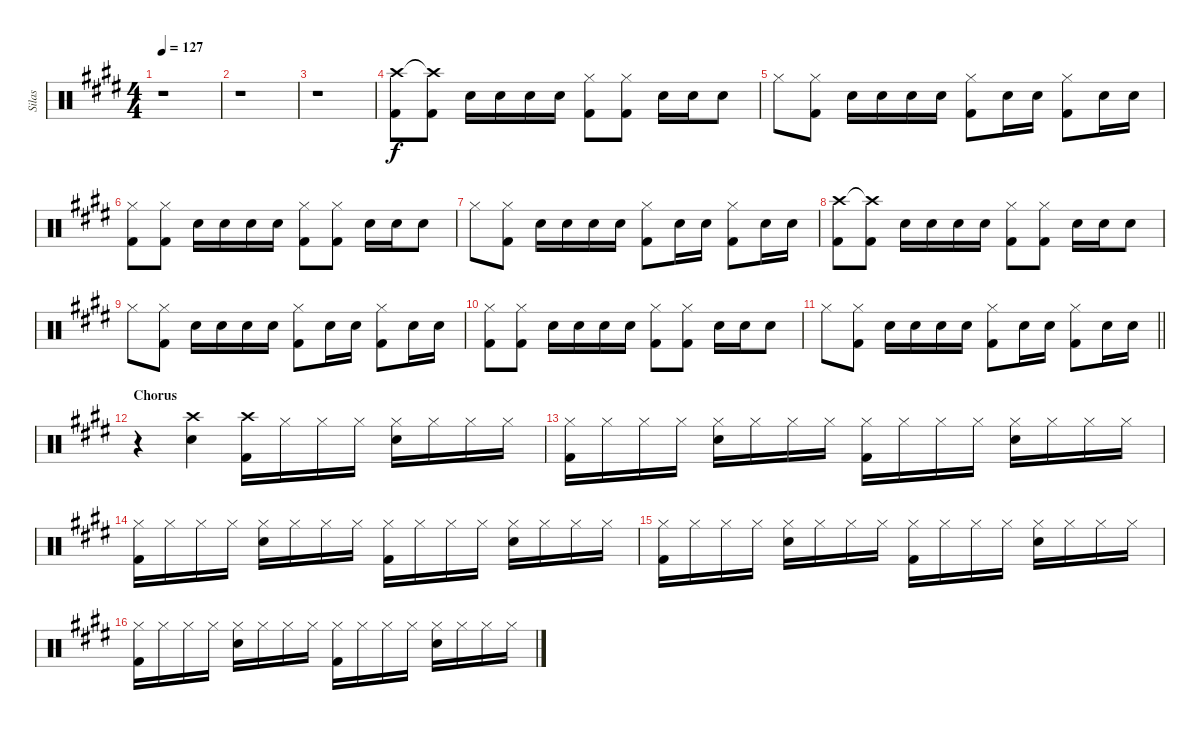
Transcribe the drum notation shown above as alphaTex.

\track ("Silas" "Silas") {instrument percussion}
\staff {score}
\articulation defaults
\ts (4 4)
\tempo 127
\clef neutral
\ks e
r.1{dy f} |
r.1 |
r.1 |
("Crash high (hit)" "Kick (hit) 2").8 ("Crash high (hit)"{t} "Kick (hit) 2").8 "Snare (hit) 2".16 "Snare (hit) 2".16 "Snare (hit) 2".16 "Snare (hit) 2".16 ("Hi-Hat (closed)" "Kick (hit) 2").8 ("Hi-Hat (closed)" "Kick (hit) 2").8 "Snare (hit) 2".16 "Snare (hit) 2".16 "Snare (hit) 2".8 |
"Hi-Hat (closed)".8 ("Hi-Hat (closed)" "Kick (hit) 2").8 "Snare (hit) 2".16 "Snare (hit) 2".16 "Snare (hit) 2".16 "Snare (hit) 2".16 ("Hi-Hat (closed)" "Kick (hit) 2").8 "Snare (hit) 2".16 "Snare (hit) 2".16 ("Hi-Hat (closed)" "Kick (hit) 2").8 "Snare (hit) 2".16 "Snare (hit) 2".16 |
("Hi-Hat (closed)" "Kick (hit) 2").8 ("Hi-Hat (closed)" "Kick (hit) 2").8 "Snare (hit) 2".16 "Snare (hit) 2".16 "Snare (hit) 2".16 "Snare (hit) 2".16 ("Hi-Hat (closed)" "Kick (hit) 2").8 ("Hi-Hat (closed)" "Kick (hit) 2").8 "Snare (hit) 2".16 "Snare (hit) 2".16 "Snare (hit) 2".8 |
"Hi-Hat (closed)".8 ("Hi-Hat (closed)" "Kick (hit) 2").8 "Snare (hit) 2".16 "Snare (hit) 2".16 "Snare (hit) 2".16 "Snare (hit) 2".16 ("Hi-Hat (closed)" "Kick (hit) 2").8 "Snare (hit) 2".16 "Snare (hit) 2".16 ("Hi-Hat (closed)" "Kick (hit) 2").8 "Snare (hit) 2".16 "Snare (hit) 2".16 |
("Crash high (hit)" "Kick (hit) 2").8 ("Crash high (hit)"{t} "Kick (hit) 2").8 "Snare (hit) 2".16 "Snare (hit) 2".16 "Snare (hit) 2".16 "Snare (hit) 2".16 ("Hi-Hat (closed)" "Kick (hit) 2").8 ("Hi-Hat (closed)" "Kick (hit) 2").8 "Snare (hit) 2".16 "Snare (hit) 2".16 "Snare (hit) 2".8 |
"Hi-Hat (closed)".8 ("Hi-Hat (closed)" "Kick (hit) 2").8 "Snare (hit) 2".16 "Snare (hit) 2".16 "Snare (hit) 2".16 "Snare (hit) 2".16 ("Hi-Hat (closed)" "Kick (hit) 2").8 "Snare (hit) 2".16 "Snare (hit) 2".16 ("Hi-Hat (closed)" "Kick (hit) 2").8 "Snare (hit) 2".16 "Snare (hit) 2".16 |
("Hi-Hat (closed)" "Kick (hit) 2").8 ("Hi-Hat (closed)" "Kick (hit) 2").8 "Snare (hit) 2".16 "Snare (hit) 2".16 "Snare (hit) 2".16 "Snare (hit) 2".16 ("Hi-Hat (closed)" "Kick (hit) 2").8 ("Hi-Hat (closed)" "Kick (hit) 2").8 "Snare (hit) 2".16 "Snare (hit) 2".16 "Snare (hit) 2".8 |
\barLineRight lightlight "Hi-Hat (closed)".8
("Hi-Hat (closed)" "Kick (hit) 2").8 "Snare (hit) 2".16 "Snare (hit) 2".16 "Snare (hit) 2".16 "Snare (hit) 2".16 ("Hi-Hat (closed)" "Kick (hit) 2").8 "Snare (hit) 2".16 "Snare (hit) 2".16 ("Hi-Hat (closed)" "Kick (hit) 2").8 "Snare (hit) 2".16 "Snare (hit) 2".16 |
\section ("" "Chorus")
r.4 ("Crash high (hit)" "Snare (hit) 2").4 ("Crash high (hit)" "Kick (hit) 2").16 "Hi-Hat (closed)".16 "Hi-Hat (closed)".16 "Hi-Hat (closed)".16 ("Hi-Hat (closed)" "Snare (hit) 2").16 "Hi-Hat (closed)".16 "Hi-Hat (closed)".16 "Hi-Hat (closed)".16 |
("Hi-Hat (closed)" "Kick (hit) 2").16 "Hi-Hat (closed)".16 "Hi-Hat (closed)".16 "Hi-Hat (closed)".16 ("Hi-Hat (closed)" "Snare (hit) 2").16 "Hi-Hat (closed)".16 "Hi-Hat (closed)".16 "Hi-Hat (closed)".16 ("Hi-Hat (closed)" "Kick (hit) 2").16 "Hi-Hat (closed)".16 "Hi-Hat (closed)".16 "Hi-Hat (closed)".16 ("Hi-Hat (closed)" "Snare (hit) 2").16 "Hi-Hat (closed)".16 "Hi-Hat (closed)".16 "Hi-Hat (closed)".16 |
("Hi-Hat (closed)" "Kick (hit) 2").16 "Hi-Hat (closed)".16 "Hi-Hat (closed)".16 "Hi-Hat (closed)".16 ("Hi-Hat (closed)" "Snare (hit) 2").16 "Hi-Hat (closed)".16 "Hi-Hat (closed)".16 "Hi-Hat (closed)".16 ("Hi-Hat (closed)" "Kick (hit) 2").16 "Hi-Hat (closed)".16 "Hi-Hat (closed)".16 "Hi-Hat (closed)".16 ("Hi-Hat (closed)" "Snare (hit) 2").16 "Hi-Hat (closed)".16 "Hi-Hat (closed)".16 "Hi-Hat (closed)".16 |
("Hi-Hat (closed)" "Kick (hit) 2").16 "Hi-Hat (closed)".16 "Hi-Hat (closed)".16 "Hi-Hat (closed)".16 ("Hi-Hat (closed)" "Snare (hit) 2").16 "Hi-Hat (closed)".16 "Hi-Hat (closed)".16 "Hi-Hat (closed)".16 ("Hi-Hat (closed)" "Kick (hit) 2").16 "Hi-Hat (closed)".16 "Hi-Hat (closed)".16 "Hi-Hat (closed)".16 ("Hi-Hat (closed)" "Snare (hit) 2").16 "Hi-Hat (closed)".16 "Hi-Hat (closed)".16 "Hi-Hat (closed)".16 |
("Hi-Hat (closed)" "Kick (hit) 2").16 "Hi-Hat (closed)".16 "Hi-Hat (closed)".16 "Hi-Hat (closed)".16 ("Hi-Hat (closed)" "Snare (hit) 2").16 "Hi-Hat (closed)".16 "Hi-Hat (closed)".16 "Hi-Hat (closed)".16 ("Hi-Hat (closed)" "Kick (hit) 2").16 "Hi-Hat (closed)".16 "Hi-Hat (closed)".16 "Hi-Hat (closed)".16 ("Hi-Hat (closed)" "Snare (hit) 2").16 "Hi-Hat (closed)".16 "Hi-Hat (closed)".16 "Hi-Hat (closed)".16
